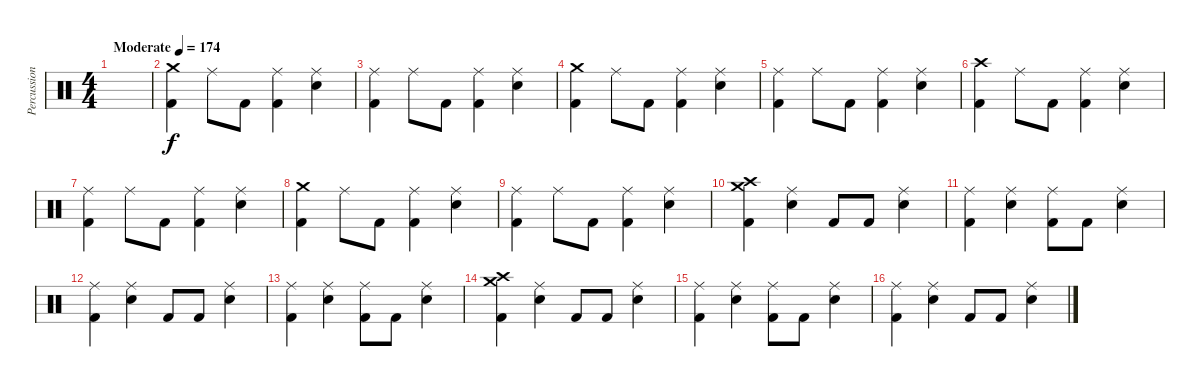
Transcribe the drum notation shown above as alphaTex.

\track ("Percussion" "Percussion") {instrument percussion}
\staff {score}
\articulation defaults
\ts (4 4)
\tempo (174 "Moderate")
\clef neutral
\ks c
|
("Kick (hit) 2" "Crash medium (hit)").4 "Ride (middle)".8 "Kick (hit) 2".8 ("Ride (middle)" "Kick (hit) 2").4 ("Ride (middle)" "Electric Snare (hit)").4 |
("Ride (middle)" "Kick (hit) 2").4 "Ride (middle)".8 "Kick (hit) 2".8 ("Ride (middle)" "Kick (hit) 2").4 ("Ride (middle)" "Electric Snare (hit)").4 |
("Kick (hit) 2" "Crash medium (hit)").4 "Ride (middle)".8 "Kick (hit) 2".8 ("Ride (middle)" "Kick (hit) 2").4 ("Ride (middle)" "Electric Snare (hit)").4 |
("Ride (middle)" "Kick (hit) 2").4 "Ride (middle)".8 "Kick (hit) 2".8 ("Ride (middle)" "Kick (hit) 2").4 ("Ride (middle)" "Electric Snare (hit)").4 |
("Kick (hit) 2" "Crash high (hit)").4 "Ride (middle)".8 "Kick (hit) 2".8 ("Ride (middle)" "Kick (hit) 2").4 ("Ride (middle)" "Electric Snare (hit)").4 |
("Ride (middle)" "Kick (hit) 2").4 "Ride (middle)".8 "Kick (hit) 2".8 ("Ride (middle)" "Kick (hit) 2").4 ("Ride (middle)" "Electric Snare (hit)").4 |
("Kick (hit) 2" "Crash medium (hit)").4 "Ride (middle)".8 "Kick (hit) 2".8 ("Ride (middle)" "Kick (hit) 2").4 ("Ride (middle)" "Electric Snare (hit)").4 |
("Ride (middle)" "Kick (hit) 2").4 "Ride (middle)".8 "Kick (hit) 2".8 ("Ride (middle)" "Kick (hit) 2").4 ("Ride (middle)" "Electric Snare (hit)").4 |
("Kick (hit) 2" "Crash medium (hit)" "Crash high (hit)").4 ("Ride (middle)" "Electric Snare (hit)").4 "Kick (hit) 2".8 "Kick (hit) 2".8 ("Ride (middle)" "Electric Snare (hit)").4 |
("Ride (middle)" "Kick (hit) 2").4 ("Ride (middle)" "Electric Snare (hit)").4 ("Ride (middle)" "Kick (hit) 2").8 "Kick (hit) 2".8 ("Ride (middle)" "Electric Snare (hit)").4 |
("Ride (middle)" "Kick (hit) 2").4 ("Ride (middle)" "Electric Snare (hit)").4 "Kick (hit) 2".8 "Kick (hit) 2".8 ("Ride (middle)" "Electric Snare (hit)").4 |
("Ride (middle)" "Kick (hit) 2").4 ("Ride (middle)" "Electric Snare (hit)").4 ("Ride (middle)" "Kick (hit) 2").8 "Kick (hit) 2".8 ("Ride (middle)" "Electric Snare (hit)").4 |
("Kick (hit) 2" "Crash medium (hit)" "Crash high (hit)").4 ("Ride (middle)" "Electric Snare (hit)").4 "Kick (hit) 2".8 "Kick (hit) 2".8 ("Ride (middle)" "Electric Snare (hit)").4 |
("Ride (middle)" "Kick (hit) 2").4 ("Ride (middle)" "Electric Snare (hit)").4 ("Ride (middle)" "Kick (hit) 2").8 "Kick (hit) 2".8 ("Ride (middle)" "Electric Snare (hit)").4 |
("Ride (middle)" "Kick (hit) 2").4 ("Ride (middle)" "Electric Snare (hit)").4 "Kick (hit) 2".8 "Kick (hit) 2".8 ("Ride (middle)" "Electric Snare (hit)").4
